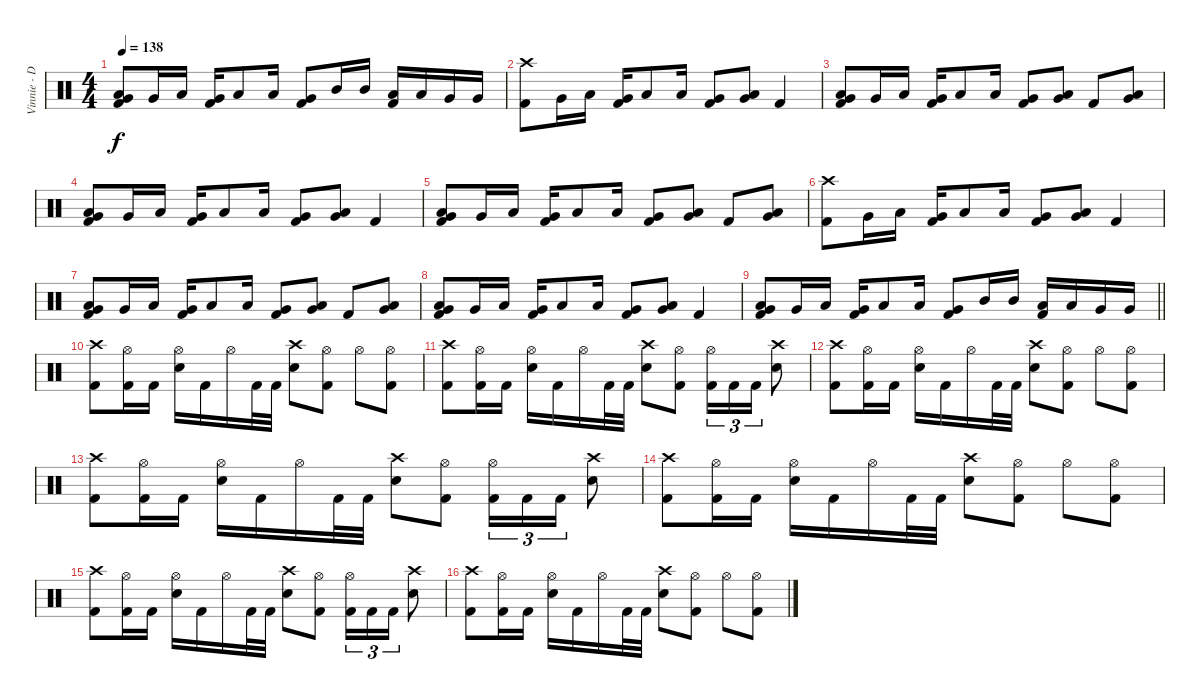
\track ("Vinnie - Drums" "Vinnie - D") {instrument percussion}
\staff {score}
\articulation defaults
\ts (4 4)
\tempo 138
\clef neutral
\ks c
("Low Tom (hit)" "Very Low Tom (hit)" "Kick (hit) 2").8{dy f} "Very Low Tom (hit)".16 "Low Tom (hit)".16 ("Very Low Tom (hit)" "Kick (hit) 2").16 "Low Tom (hit)".8 "Low Tom (hit)".16 ("Very Low Tom (hit)" "Kick (hit) 2").8 "Mid Tom (hit)".16 "Mid Tom (hit)".16 ("Low Tom (hit)" "Kick (hit) 2").16 "Low Tom (hit)".16 "Very Low Tom (hit)".16 "Very Low Tom (hit)".16 |
("Crash high (hit)" "Kick (hit) 2").8 "Very Low Tom (hit)".16 "Low Tom (hit)".16 ("Very Low Tom (hit)" "Kick (hit) 2").16 "Low Tom (hit)".8 "Low Tom (hit)".16 ("Very Low Tom (hit)" "Kick (hit) 2").8 ("Low Tom (hit)" "Very Low Tom (hit)").8 "Kick (hit) 2".4 |
("Low Tom (hit)" "Very Low Tom (hit)" "Kick (hit) 2").8 "Very Low Tom (hit)".16 "Low Tom (hit)".16 ("Very Low Tom (hit)" "Kick (hit) 2").16 "Low Tom (hit)".8 "Low Tom (hit)".16 ("Very Low Tom (hit)" "Kick (hit) 2").8 ("Low Tom (hit)" "Very Low Tom (hit)").8 "Kick (hit) 2".8 ("Low Tom (hit)" "Very Low Tom (hit)").8 |
("Low Tom (hit)" "Very Low Tom (hit)" "Kick (hit) 2").8 "Very Low Tom (hit)".16 "Low Tom (hit)".16 ("Very Low Tom (hit)" "Kick (hit) 2").16 "Low Tom (hit)".8 "Low Tom (hit)".16 ("Very Low Tom (hit)" "Kick (hit) 2").8 ("Low Tom (hit)" "Very Low Tom (hit)").8 "Kick (hit) 2".4 |
("Low Tom (hit)" "Very Low Tom (hit)" "Kick (hit) 2").8 "Very Low Tom (hit)".16 "Low Tom (hit)".16 ("Very Low Tom (hit)" "Kick (hit) 2").16 "Low Tom (hit)".8 "Low Tom (hit)".16 ("Very Low Tom (hit)" "Kick (hit) 2").8 ("Low Tom (hit)" "Very Low Tom (hit)").8 "Kick (hit) 2".8 ("Low Tom (hit)" "Very Low Tom (hit)").8 |
("Crash high (hit)" "Kick (hit) 2").8 "Very Low Tom (hit)".16 "Low Tom (hit)".16 ("Very Low Tom (hit)" "Kick (hit) 2").16 "Low Tom (hit)".8 "Low Tom (hit)".16 ("Very Low Tom (hit)" "Kick (hit) 2").8 ("Low Tom (hit)" "Very Low Tom (hit)").8 "Kick (hit) 2".4 |
("Low Tom (hit)" "Very Low Tom (hit)" "Kick (hit) 2").8 "Very Low Tom (hit)".16 "Low Tom (hit)".16 ("Very Low Tom (hit)" "Kick (hit) 2").16 "Low Tom (hit)".8 "Low Tom (hit)".16 ("Very Low Tom (hit)" "Kick (hit) 2").8 ("Low Tom (hit)" "Very Low Tom (hit)").8 "Kick (hit) 2".8 ("Low Tom (hit)" "Very Low Tom (hit)").8 |
("Low Tom (hit)" "Very Low Tom (hit)" "Kick (hit) 2").8 "Very Low Tom (hit)".16 "Low Tom (hit)".16 ("Very Low Tom (hit)" "Kick (hit) 2").16 "Low Tom (hit)".8 "Low Tom (hit)".16 ("Very Low Tom (hit)" "Kick (hit) 2").8 ("Low Tom (hit)" "Very Low Tom (hit)").8 "Kick (hit) 2".4 |
\barLineRight lightlight
("Low Tom (hit)" "Very Low Tom (hit)" "Kick (hit) 2").8 "Very Low Tom (hit)".16 "Low Tom (hit)".16 ("Very Low Tom (hit)" "Kick (hit) 2").16 "Low Tom (hit)".8 "Low Tom (hit)".16 ("Very Low Tom (hit)" "Kick (hit) 2").8 "Mid Tom (hit)".16 "Mid Tom (hit)".16 ("Low Tom (hit)" "Kick (hit) 2").16 "Low Tom (hit)".16 "Very Low Tom (hit)".16 "Very Low Tom (hit)".16 |
("Crash high (hit)" "Kick (hit) 2").8 ("Hi-Hat (open)" "Kick (hit) 2").16 "Kick (hit) 2".16 ("Hi-Hat (open)" "Snare (hit) 2").16 "Kick (hit) 2".16 "Hi-Hat (open)".16 "Kick (hit) 2".32 "Kick (hit) 2".32 ("Crash high (hit)" "Snare (hit) 2").8 ("Hi-Hat (open)" "Kick (hit) 2").8 "Hi-Hat (open)".8 ("Hi-Hat (open)" "Kick (hit) 2").8 |
("Crash high (hit)" "Kick (hit) 2").8 ("Hi-Hat (open)" "Kick (hit) 2").16 "Kick (hit) 2".16 ("Hi-Hat (open)" "Snare (hit) 2").16 "Kick (hit) 2".16 "Hi-Hat (open)".16 "Kick (hit) 2".32 "Kick (hit) 2".32 ("Crash high (hit)" "Snare (hit) 2").8 ("Hi-Hat (open)" "Kick (hit) 2").8 ("Hi-Hat (open)" "Kick (hit) 2").16{tu (3 2)} "Kick (hit) 2".16{tu (3 2)} "Kick (hit) 2".16{tu (3 2)} ("Crash high (hit)" "Snare (hit) 2").8 |
("Crash high (hit)" "Kick (hit) 2").8 ("Hi-Hat (open)" "Kick (hit) 2").16 "Kick (hit) 2".16 ("Hi-Hat (open)" "Snare (hit) 2").16 "Kick (hit) 2".16 "Hi-Hat (open)".16 "Kick (hit) 2".32 "Kick (hit) 2".32 ("Crash high (hit)" "Snare (hit) 2").8 ("Hi-Hat (open)" "Kick (hit) 2").8 "Hi-Hat (open)".8 ("Hi-Hat (open)" "Kick (hit) 2").8 |
("Crash high (hit)" "Kick (hit) 2").8 ("Hi-Hat (open)" "Kick (hit) 2").16 "Kick (hit) 2".16 ("Hi-Hat (open)" "Snare (hit) 2").16 "Kick (hit) 2".16 "Hi-Hat (open)".16 "Kick (hit) 2".32 "Kick (hit) 2".32 ("Crash high (hit)" "Snare (hit) 2").8 ("Hi-Hat (open)" "Kick (hit) 2").8 ("Hi-Hat (open)" "Kick (hit) 2").16{tu (3 2)} "Kick (hit) 2".16{tu (3 2)} "Kick (hit) 2".16{tu (3 2)} ("Crash high (hit)" "Snare (hit) 2").8 |
("Crash high (hit)" "Kick (hit) 2").8 ("Hi-Hat (open)" "Kick (hit) 2").16 "Kick (hit) 2".16 ("Hi-Hat (open)" "Snare (hit) 2").16 "Kick (hit) 2".16 "Hi-Hat (open)".16 "Kick (hit) 2".32 "Kick (hit) 2".32 ("Crash high (hit)" "Snare (hit) 2").8 ("Hi-Hat (open)" "Kick (hit) 2").8 "Hi-Hat (open)".8 ("Hi-Hat (open)" "Kick (hit) 2").8 |
("Crash high (hit)" "Kick (hit) 2").8 ("Hi-Hat (open)" "Kick (hit) 2").16 "Kick (hit) 2".16 ("Hi-Hat (open)" "Snare (hit) 2").16 "Kick (hit) 2".16 "Hi-Hat (open)".16 "Kick (hit) 2".32 "Kick (hit) 2".32 ("Crash high (hit)" "Snare (hit) 2").8 ("Hi-Hat (open)" "Kick (hit) 2").8 ("Hi-Hat (open)" "Kick (hit) 2").16{tu (3 2)} "Kick (hit) 2".16{tu (3 2)} "Kick (hit) 2".16{tu (3 2)} ("Crash high (hit)" "Snare (hit) 2").8 |
("Crash high (hit)" "Kick (hit) 2").8 ("Hi-Hat (open)" "Kick (hit) 2").16 "Kick (hit) 2".16 ("Hi-Hat (open)" "Snare (hit) 2").16 "Kick (hit) 2".16 "Hi-Hat (open)".16 "Kick (hit) 2".32 "Kick (hit) 2".32 ("Crash high (hit)" "Snare (hit) 2").8 ("Hi-Hat (open)" "Kick (hit) 2").8 "Hi-Hat (open)".8 ("Hi-Hat (open)" "Kick (hit) 2").8
